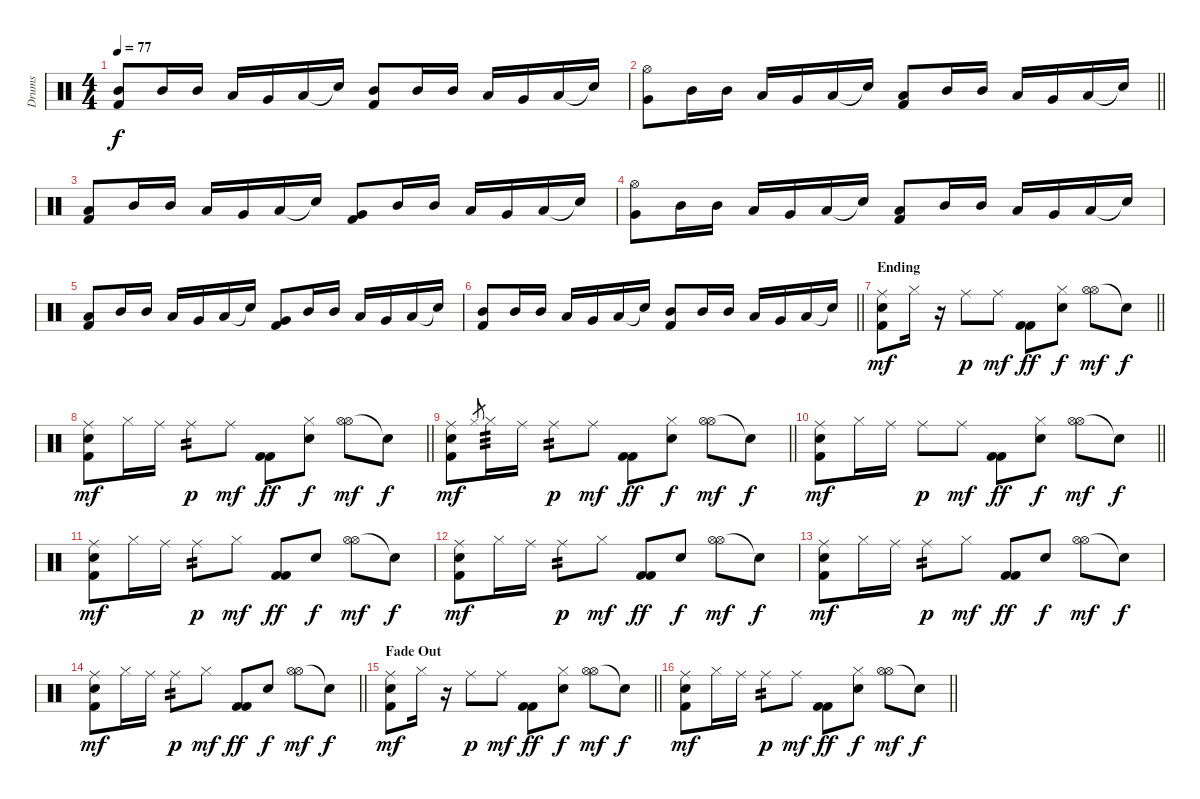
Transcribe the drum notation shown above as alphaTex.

\track ("Drums" "Drums") {instrument percussion}
\staff {score}
\articulation defaults
\ts (4 4)
\tempo 77
\clef neutral
\ks c
("Mid Tom (hit)" "Kick (hit) 2").8{dy f} "Mid Tom (hit)".16 "Mid Tom (hit)".16 "Low Tom (hit)".16 "Very Low Tom (hit)".16 "Low Floor Tom (hit)".16 "Snare (hit)"{t}.16 ("Mid Tom (hit)" "Kick (hit) 2").8 "Mid Tom (hit)".16 "Mid Tom (hit)".16 "Low Tom (hit)".16 "Very Low Tom (hit)".16 "Low Floor Tom (hit)".16 "Snare (hit)"{t}.16 |
\barLineRight lightlight
("Very Low Tom (hit)" "Hi-Hat (open)").8 "Mid Tom (hit)".16 "Mid Tom (hit)".16 "Low Tom (hit)".16 "Very Low Tom (hit)".16 "Low Floor Tom (hit)".16 "Snare (hit)"{t}.16 ("Low Floor Tom (hit)" "Kick (hit) 2").8 "Mid Tom (hit)".16 "Mid Tom (hit)".16 "Low Tom (hit)".16 "Very Low Tom (hit)".16 "Low Floor Tom (hit)".16 "Snare (hit)"{t}.16 |
("Low Floor Tom (hit)" "Kick (hit) 2").8 "Mid Tom (hit)".16 "Mid Tom (hit)".16 "Low Tom (hit)".16 "Very Low Tom (hit)".16 "Low Floor Tom (hit)".16 "Snare (hit)"{t}.16 ("Very Low Tom (hit)" "Kick (hit) 2").8 "Mid Tom (hit)".16 "Mid Tom (hit)".16 "Low Tom (hit)".16 "Very Low Tom (hit)".16 "Low Floor Tom (hit)".16 "Snare (hit)"{t}.16 |
("Very Low Tom (hit)" "Hi-Hat (open)").8 "Mid Tom (hit)".16 "Mid Tom (hit)".16 "Low Tom (hit)".16 "Very Low Tom (hit)".16 "Low Floor Tom (hit)".16 "Snare (hit)"{t}.16 ("Low Floor Tom (hit)" "Kick (hit) 2").8 "Mid Tom (hit)".16 "Mid Tom (hit)".16 "Low Tom (hit)".16 "Very Low Tom (hit)".16 "Low Floor Tom (hit)".16 "Snare (hit)"{t}.16 |
("Low Floor Tom (hit)" "Kick (hit) 2").8 "Mid Tom (hit)".16 "Mid Tom (hit)".16 "Low Tom (hit)".16 "Very Low Tom (hit)".16 "Low Floor Tom (hit)".16 "Snare (hit)"{t}.16 ("Very Low Tom (hit)" "Kick (hit) 2").8 "Mid Tom (hit)".16 "Mid Tom (hit)".16 "Low Tom (hit)".16 "Very Low Tom (hit)".16 "Low Floor Tom (hit)".16 "Snare (hit)"{t}.16 |
\barLineRight lightlight
("Mid Tom (hit)" "Kick (hit) 2").8 "Mid Tom (hit)".16 "Mid Tom (hit)".16 "Low Tom (hit)".16 "Very Low Tom (hit)".16 "Low Floor Tom (hit)".16 "Snare (hit)"{t}.16 ("Mid Tom (hit)" "Kick (hit) 2").8 "Mid Tom (hit)".16 "Mid Tom (hit)".16 "Low Tom (hit)".16 "Very Low Tom (hit)".16 "Low Floor Tom (hit)".16 "Snare (hit)"{t}.16 |
\section ("" "Ending")
\barLineRight lightlight
("Ride (middle)" "Electric Snare (hit)" "Kick (hit) 2").8{dy mf} "Hi-Hat (closed)".16 r.16 "Ride (middle)".8{dy p} "Ride (middle)".8{dy mf} ("Kick (hit) 2" "Kick (hit) 2").8{dy ff} ("Hi-Hat (closed)" "Snare (hit) 2").8{dy f} ("Hi-Hat (open)" "Hi-Hat (open)").8{dy mf} "Snare (hit)"{t}.8{dy f} |
\barLineRight lightlight
("Ride (middle)" "Electric Snare (hit)" "Kick (hit) 2").8{dy mf} "Hi-Hat (closed)".16 "Ride (middle)".16 "Ride (middle)".8{tp 2 dy p} "Ride (middle)".8{dy mf} ("Kick (hit) 2" "Kick (hit) 2").8{dy ff} ("Hi-Hat (closed)" "Snare (hit) 2").8{dy f} ("Hi-Hat (open)" "Hi-Hat (open)").8{dy mf} "Snare (hit)"{t}.8{dy f} |
\barLineRight lightlight
("Ride (middle)" "Electric Snare (hit)" "Kick (hit) 2").8{dy mf} "Hi-Hat (closed)".8{gr} "Hi-Hat (closed)".16{tp 3} "Ride (middle)".16 "Ride (middle)".8{tp 2 dy p} "Ride (middle)".8{dy mf} ("Kick (hit) 2" "Kick (hit) 2").8{dy ff} ("Hi-Hat (closed)" "Snare (hit) 2").8{dy f} ("Hi-Hat (open)" "Hi-Hat (open)").8{dy mf} "Snare (hit)"{t}.8{dy f} |
\barLineRight lightlight
("Ride (middle)" "Electric Snare (hit)" "Kick (hit) 2").8{dy mf} "Hi-Hat (closed)".16 "Ride (middle)".16 "Ride (middle)".8{dy p} "Ride (middle)".8{dy mf} ("Kick (hit) 2" "Kick (hit) 2").8{dy ff} ("Hi-Hat (closed)" "Snare (hit) 2").8{dy f} ("Hi-Hat (open)" "Hi-Hat (open)").8{dy mf} "Snare (hit)"{t}.8{dy f} |
("Ride (middle)" "Electric Snare (hit)" "Kick (hit) 2").8{dy mf} "Hi-Hat (closed)".16 "Ride (middle)".16 "Ride (middle)".8{tp 2 dy p} "Hi-Hat (closed)".8{dy mf} ("Kick (hit) 2" "Kick (hit) 2").8{dy ff} "Snare (hit) 2".8{dy f} ("Hi-Hat (open)" "Hi-Hat (open)").8{dy mf} "Snare (hit)"{t}.8{dy f} |
("Ride (middle)" "Electric Snare (hit)" "Kick (hit) 2").8{dy mf} "Hi-Hat (closed)".16 "Ride (middle)".16 "Ride (middle)".8{tp 2 dy p} "Hi-Hat (closed)".8{dy mf} ("Kick (hit) 2" "Kick (hit) 2").8{dy ff} "Snare (hit) 2".8{dy f} ("Hi-Hat (open)" "Hi-Hat (open)").8{dy mf} "Snare (hit)"{t}.8{dy f} |
("Ride (middle)" "Electric Snare (hit)" "Kick (hit) 2").8{dy mf} "Hi-Hat (closed)".16 "Ride (middle)".16 "Ride (middle)".8{tp 2 dy p} "Hi-Hat (closed)".8{dy mf} ("Kick (hit) 2" "Kick (hit) 2").8{dy ff} "Snare (hit) 2".8{dy f} ("Hi-Hat (open)" "Hi-Hat (open)").8{dy mf} "Snare (hit)"{t}.8{dy f} |
\barLineRight lightlight
("Ride (middle)" "Electric Snare (hit)" "Kick (hit) 2").8{dy mf} "Hi-Hat (closed)".16 "Ride (middle)".16 "Ride (middle)".8{tp 2 dy p} "Hi-Hat (closed)".8{dy mf} ("Kick (hit) 2" "Kick (hit) 2").8{dy ff} "Snare (hit) 2".8{dy f} ("Hi-Hat (open)" "Hi-Hat (open)").8{dy mf} "Snare (hit)"{t}.8{dy f} |
\section ("" "Fade Out")
\barLineRight lightlight
("Ride (middle)" "Electric Snare (hit)" "Kick (hit) 2").8{dy mf} "Hi-Hat (closed)".16 r.16 "Ride (middle)".8{dy p} "Ride (middle)".8{dy mf} ("Kick (hit) 2" "Kick (hit) 2").8{dy ff} ("Hi-Hat (closed)" "Snare (hit) 2").8{dy f} ("Hi-Hat (open)" "Hi-Hat (open)").8{dy mf} "Snare (hit)"{t}.8{dy f} |
\barLineRight lightlight
("Ride (middle)" "Electric Snare (hit)" "Kick (hit) 2").8{dy mf} "Hi-Hat (closed)".16 "Ride (middle)".16 "Ride (middle)".8{tp 2 dy p} "Ride (middle)".8{dy mf} ("Kick (hit) 2" "Kick (hit) 2").8{dy ff} ("Hi-Hat (closed)" "Snare (hit) 2").8{dy f} ("Hi-Hat (open)" "Hi-Hat (open)").8{dy mf} "Snare (hit)"{t}.8{dy f}
